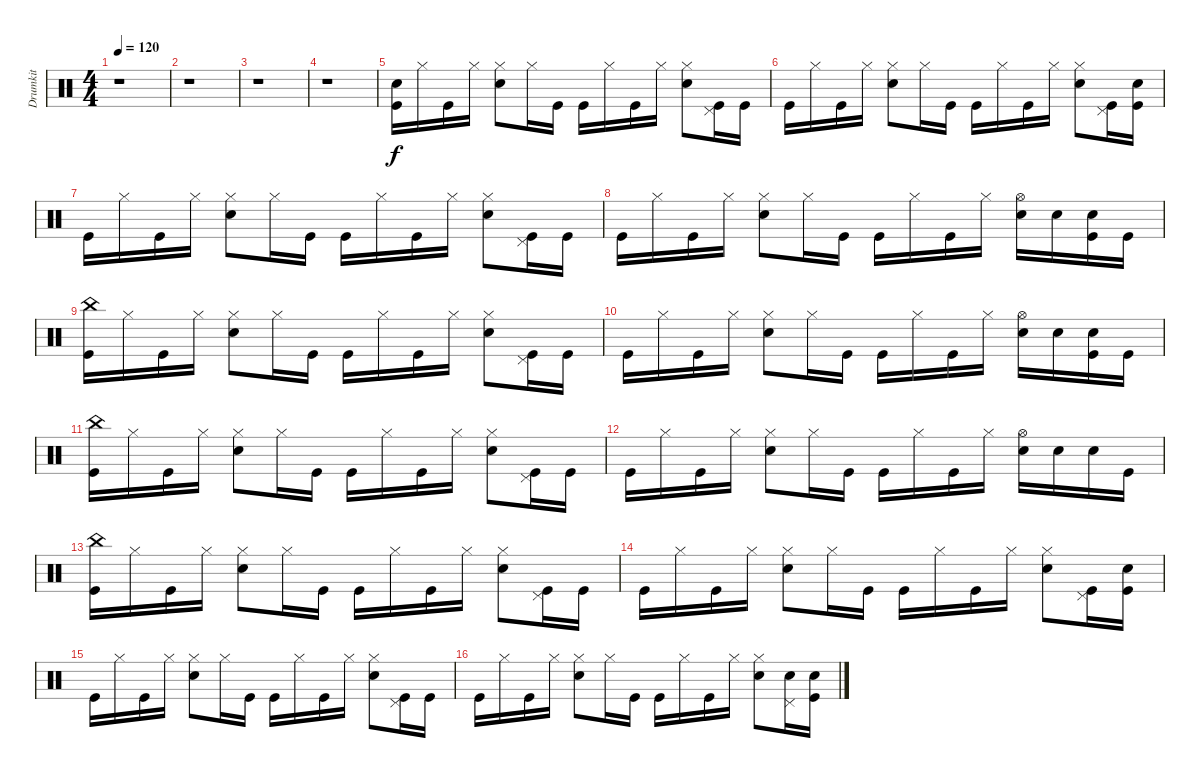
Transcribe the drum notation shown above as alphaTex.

\track ("Drumkit" "Drumkit") {instrument percussion}
\staff {score}
\articulation defaults
\ts (4 4)
\tempo 120
\clef neutral
\ks c
r.1{dy f} |
r.1 |
r.1 |
r.1 |
("Snare (hit) 2" "Kick (hit)").16 "Hi-Hat (closed)".16 "Kick (hit)".16 "Hi-Hat (closed)".16 ("Hi-Hat (closed)" "Snare (hit) 2").8 "Hi-Hat (closed)".16 "Kick (hit)".16 "Kick (hit)".16 "Hi-Hat (closed)".16 "Kick (hit)".16 "Hi-Hat (closed)".16 ("Hi-Hat (closed)" "Snare (hit) 2").8 ("Pedal Hi-Hat (hit)" "Kick (hit)").16 "Kick (hit)".16 |
"Kick (hit)".16 "Hi-Hat (closed)".16 "Kick (hit)".16 "Hi-Hat (closed)".16 ("Hi-Hat (closed)" "Snare (hit) 2").8 "Hi-Hat (closed)".16 "Kick (hit)".16 "Kick (hit)".16 "Hi-Hat (closed)".16 "Kick (hit)".16 "Hi-Hat (closed)".16 ("Hi-Hat (closed)" "Snare (hit) 2").8 ("Pedal Hi-Hat (hit)" "Kick (hit)").16 ("Snare (hit) 2" "Kick (hit)").16 |
"Kick (hit)".16 "Hi-Hat (closed)".16 "Kick (hit)".16 "Hi-Hat (closed)".16 ("Hi-Hat (closed)" "Snare (hit) 2").8 "Hi-Hat (closed)".16 "Kick (hit)".16 "Kick (hit)".16 "Hi-Hat (closed)".16 "Kick (hit)".16 "Hi-Hat (closed)".16 ("Hi-Hat (closed)" "Snare (hit) 2").8 ("Pedal Hi-Hat (hit)" "Kick (hit)").16 "Kick (hit)".16 |
"Kick (hit)".16 "Hi-Hat (closed)".16 "Kick (hit)".16 "Hi-Hat (closed)".16 ("Hi-Hat (closed)" "Snare (hit) 2").8 "Hi-Hat (closed)".16 "Kick (hit)".16 "Kick (hit)".16 "Hi-Hat (closed)".16 "Kick (hit)".16 "Hi-Hat (closed)".16 ("Hi-Hat (open)" "Snare (hit) 2").16 "Snare (hit) 2".16 ("Snare (hit) 2" "Kick (hit)").16 "Kick (hit)".16 |
("China (hit)" "Kick (hit)").16 "Hi-Hat (closed)".16 "Kick (hit)".16 "Hi-Hat (closed)".16 ("Hi-Hat (closed)" "Snare (hit) 2").8 "Hi-Hat (closed)".16 "Kick (hit)".16 "Kick (hit)".16 "Hi-Hat (closed)".16 "Kick (hit)".16 "Hi-Hat (closed)".16 ("Hi-Hat (closed)" "Snare (hit) 2").8 ("Pedal Hi-Hat (hit)" "Kick (hit)").16 "Kick (hit)".16 |
"Kick (hit)".16 "Hi-Hat (closed)".16 "Kick (hit)".16 "Hi-Hat (closed)".16 ("Hi-Hat (closed)" "Snare (hit) 2").8 "Hi-Hat (closed)".16 "Kick (hit)".16 "Kick (hit)".16 "Hi-Hat (closed)".16 "Kick (hit)".16 "Hi-Hat (closed)".16 ("Hi-Hat (open)" "Snare (hit) 2").16 "Snare (hit) 2".16 ("Snare (hit) 2" "Kick (hit)").16 "Kick (hit)".16 |
("China (hit)" "Kick (hit)").16 "Hi-Hat (closed)".16 "Kick (hit)".16 "Hi-Hat (closed)".16 ("Hi-Hat (closed)" "Snare (hit) 2").8 "Hi-Hat (closed)".16 "Kick (hit)".16 "Kick (hit)".16 "Hi-Hat (closed)".16 "Kick (hit)".16 "Hi-Hat (closed)".16 ("Hi-Hat (closed)" "Snare (hit) 2").8 ("Pedal Hi-Hat (hit)" "Kick (hit)").16 "Kick (hit)".16 |
"Kick (hit)".16 "Hi-Hat (closed)".16 "Kick (hit)".16 "Hi-Hat (closed)".16 ("Hi-Hat (closed)" "Snare (hit) 2").8 "Hi-Hat (closed)".16 "Kick (hit)".16 "Kick (hit)".16 "Hi-Hat (closed)".16 "Kick (hit)".16 "Hi-Hat (closed)".16 ("Hi-Hat (open)" "Snare (hit) 2").16 "Snare (hit) 2".16 "Snare (hit) 2".16 "Kick (hit)".16 |
("China (hit)" "Kick (hit)").16 "Hi-Hat (closed)".16 "Kick (hit)".16 "Hi-Hat (closed)".16 ("Hi-Hat (closed)" "Snare (hit) 2").8 "Hi-Hat (closed)".16 "Kick (hit)".16 "Kick (hit)".16 "Hi-Hat (closed)".16 "Kick (hit)".16 "Hi-Hat (closed)".16 ("Hi-Hat (closed)" "Snare (hit) 2").8 ("Pedal Hi-Hat (hit)" "Kick (hit)").16 "Kick (hit)".16 |
"Kick (hit)".16 "Hi-Hat (closed)".16 "Kick (hit)".16 "Hi-Hat (closed)".16 ("Hi-Hat (closed)" "Snare (hit) 2").8 "Hi-Hat (closed)".16 "Kick (hit)".16 "Kick (hit)".16 "Hi-Hat (closed)".16 "Kick (hit)".16 "Hi-Hat (closed)".16 ("Hi-Hat (closed)" "Snare (hit) 2").8 ("Pedal Hi-Hat (hit)" "Kick (hit)").16 ("Snare (hit) 2" "Kick (hit)").16 |
"Kick (hit)".16 "Hi-Hat (closed)".16 "Kick (hit)".16 "Hi-Hat (closed)".16 ("Hi-Hat (closed)" "Snare (hit) 2").8 "Hi-Hat (closed)".16 "Kick (hit)".16 "Kick (hit)".16 "Hi-Hat (closed)".16 "Kick (hit)".16 "Hi-Hat (closed)".16 ("Hi-Hat (closed)" "Snare (hit) 2").8 ("Pedal Hi-Hat (hit)" "Kick (hit)").16 "Kick (hit)".16 |
"Kick (hit)".16 "Hi-Hat (closed)".16 "Kick (hit)".16 "Hi-Hat (closed)".16 ("Hi-Hat (closed)" "Snare (hit) 2").8 "Hi-Hat (closed)".16 "Kick (hit)".16 "Kick (hit)".16 "Hi-Hat (closed)".16 "Kick (hit)".16 "Hi-Hat (closed)".16 ("Hi-Hat (closed)" "Snare (hit) 2").8 ("Snare (hit) 2" "Pedal Hi-Hat (hit)").16 ("Snare (hit) 2" "Kick (hit)").16
